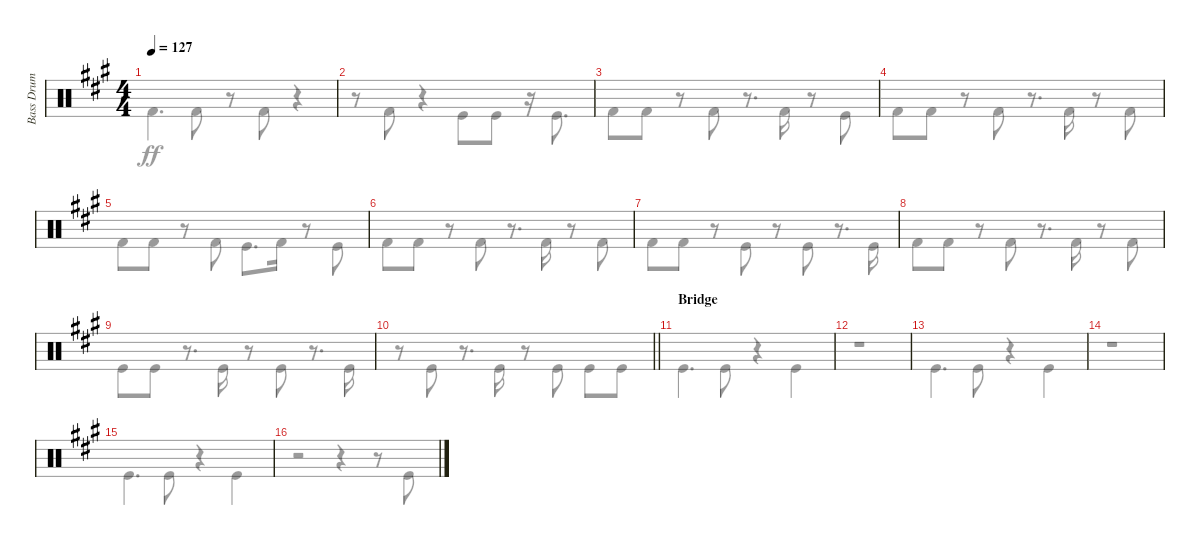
\track ("Bass Drum" "Bass Drum") {instrument percussion}
\staff {score}
\articulation defaults
\voice
\ts (4 4)
\tempo 127
\clef neutral
\ks a
|
|
|
|
|
|
|
|
|
\barLineRight lightlight
|
\section ("" "Bridge")
|
|
|
|
|
\voice
\clef neutral
\ks a "Kick (hit) 2".4{d dy ff} "Kick (hit) 2".8
r.8 "Kick (hit) 2".8 r.4 |
r.8 "Kick (hit) 2".8 r.4 "Kick (hit)".8 "Kick (hit)".8 r.16 "Kick (hit)".8{d} |
"Kick (hit) 2".8 "Kick (hit) 2".8 r.8 "Kick (hit) 2".8 r.8{d} "Kick (hit) 2".16 r.8 "Kick (hit)".8 |
"Kick (hit) 2".8 "Kick (hit) 2".8 r.8 "Kick (hit) 2".8 r.8{d} "Kick (hit) 2".16 r.8 "Kick (hit) 2".8 |
"Kick (hit) 2".8 "Kick (hit) 2".8 r.8 "Kick (hit) 2".8 "Kick (hit)".8{d} "Kick (hit) 2".16 r.8 "Kick (hit)".8 |
"Kick (hit) 2".8 "Kick (hit) 2".8 r.8 "Kick (hit) 2".8 r.8{d} "Kick (hit) 2".16 r.8 "Kick (hit) 2".8 |
"Kick (hit) 2".8 "Kick (hit) 2".8 r.8 "Kick (hit)".8 r.8 "Kick (hit)".8 r.8{d} "Kick (hit)".16 |
"Kick (hit) 2".8 "Kick (hit) 2".8 r.8 "Kick (hit) 2".8 r.8{d} "Kick (hit) 2".16 r.8 "Kick (hit) 2".8 |
"Kick (hit)".8 "Kick (hit)".8 r.8{d} "Kick (hit)".16 r.8 "Kick (hit)".8 r.8{d} "Kick (hit)".16 |
\barLineRight lightlight
r.8 "Kick (hit)".8 r.8{d} "Kick (hit)".16 r.8 "Kick (hit)".8 "Kick (hit)".8 "Kick (hit)".8 |
"Kick (hit)".4{d} "Kick (hit)".8 r.4 "Kick (hit)".4 |
r.1 |
"Kick (hit)".4{d} "Kick (hit)".8 r.4 "Kick (hit)".4 |
r.1 |
"Kick (hit)".4{d} "Kick (hit)".8 r.4 "Kick (hit)".4 |
r.2 r.4 r.8 "Kick (hit)".8
